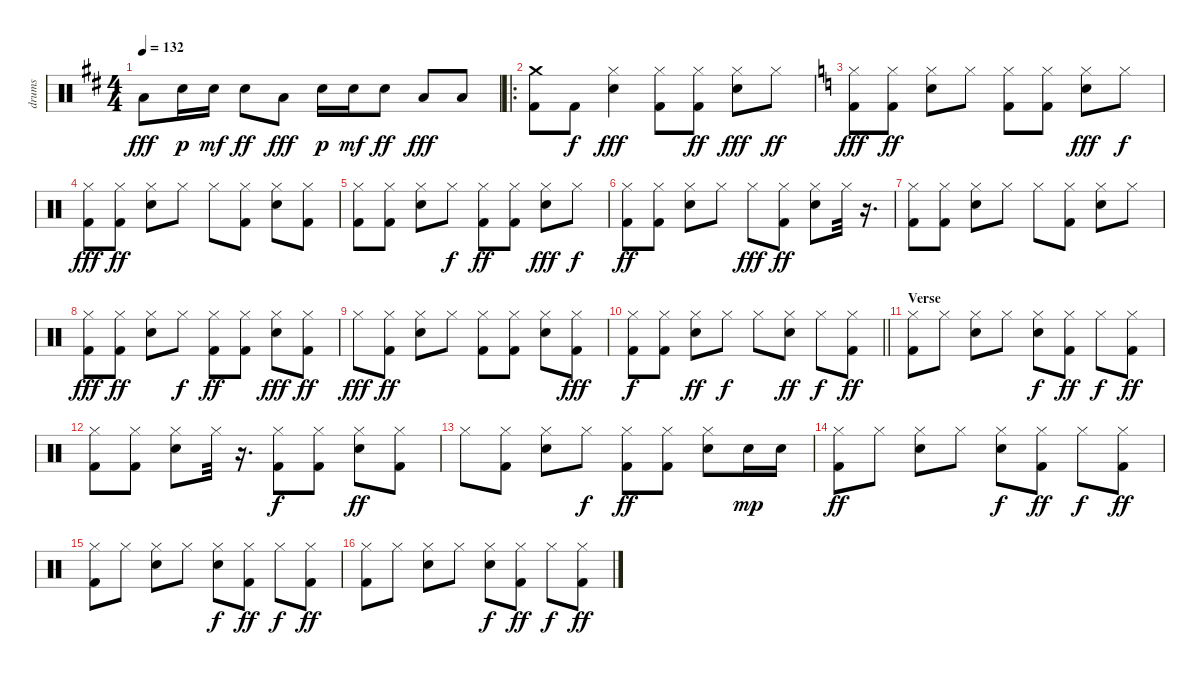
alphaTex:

\track ("drums" "drums") {instrument percussion}
\staff {score}
\articulation defaults
\ts (4 4)
\tempo 132
\clef neutral
\ks d "Low Tom (hit)".8{dy fff} "Electric Snare (hit)".16{dy p} "Electric Snare (hit)".16{dy mf} "Electric Snare (hit)".8{dy ff} "Low Tom (hit)".8{dy fff} "Electric Snare (hit)".16{dy p} "Electric Snare (hit)".16{dy mf} "Electric Snare (hit)".8{dy ff} "Low Tom (hit)".8{dy fff} "Low Tom (hit)".8
|
\ro
("Kick (hit) 2" "Crash medium (hit)").8 "Kick (hit) 2".8{dy f} ("Hi-Hat (closed)" "Electric Snare (hit)").4{dy fff} ("Kick (hit) 2" "Hi-Hat (closed)").8 ("Kick (hit) 2" "Hi-Hat (closed)").8{dy ff} ("Hi-Hat (closed)" "Electric Snare (hit)").8{dy fff} "Hi-Hat (closed)".8{dy ff} |
\ks c
("Kick (hit) 2" "Hi-Hat (closed)").8{dy fff} ("Kick (hit) 2" "Hi-Hat (closed)").8{dy ff} ("Hi-Hat (closed)" "Electric Snare (hit)").8 "Hi-Hat (closed)".8 ("Hi-Hat (closed)" "Kick (hit) 2").8 ("Kick (hit) 2" "Hi-Hat (closed)").8 ("Electric Snare (hit)" "Hi-Hat (closed)").8{dy fff} "Hi-Hat (closed)".8{dy f} |
("Kick (hit) 2" "Hi-Hat (closed)").8{dy fff} ("Kick (hit) 2" "Hi-Hat (closed)").8{dy ff} ("Hi-Hat (closed)" "Electric Snare (hit)").8 "Hi-Hat (closed)".8 "Hi-Hat (closed)".8 ("Kick (hit) 2" "Hi-Hat (closed)").8 ("Electric Snare (hit)" "Hi-Hat (closed)").8 ("Hi-Hat (closed)" "Kick (hit) 2").8 |
("Kick (hit) 2" "Hi-Hat (closed)").8 ("Kick (hit) 2" "Hi-Hat (closed)").8 ("Hi-Hat (closed)" "Electric Snare (hit)").8 "Hi-Hat (closed)".8{dy f} ("Kick (hit) 2" "Hi-Hat (closed)").8{dy ff} ("Hi-Hat (closed)" "Kick (hit) 2").8 ("Electric Snare (hit)" "Hi-Hat (closed)").8{dy fff} "Hi-Hat (closed)".8{dy f} |
("Hi-Hat (closed)" "Kick (hit) 2").8{dy ff} ("Kick (hit) 2" "Hi-Hat (closed)").8 ("Hi-Hat (closed)" "Electric Snare (hit)").8 "Hi-Hat (closed)".8 "Hi-Hat (closed)".8{dy fff} ("Hi-Hat (closed)" "Kick (hit) 2").8{dy ff} ("Electric Snare (hit)" "Hi-Hat (closed)").8 "Hi-Hat (closed)".32 r.16{d} |
("Hi-Hat (closed)" "Kick (hit) 2").8 ("Kick (hit) 2" "Hi-Hat (closed)").8 ("Hi-Hat (closed)" "Electric Snare (hit)").8 "Hi-Hat (closed)".8 "Hi-Hat (closed)".8 ("Hi-Hat (closed)" "Kick (hit) 2").8 ("Electric Snare (hit)" "Hi-Hat (closed)").8 "Hi-Hat (closed)".8 |
("Hi-Hat (closed)" "Kick (hit) 2").8{dy fff} ("Hi-Hat (closed)" "Kick (hit) 2").8{dy ff} ("Hi-Hat (closed)" "Electric Snare (hit)").8 "Hi-Hat (closed)".8{dy f} ("Kick (hit) 2" "Hi-Hat (closed)").8{dy ff} ("Hi-Hat (closed)" "Kick (hit) 2").8 ("Electric Snare (hit)" "Hi-Hat (closed)").8{dy fff} ("Kick (hit) 2" "Hi-Hat (closed)").8{dy ff} |
"Hi-Hat (closed)".8{dy fff} ("Hi-Hat (closed)" "Kick (hit) 2").8{dy ff} ("Hi-Hat (closed)" "Electric Snare (hit)").8 "Hi-Hat (closed)".8 ("Hi-Hat (closed)" "Kick (hit) 2").8 ("Kick (hit) 2" "Hi-Hat (closed)").8 ("Electric Snare (hit)" "Hi-Hat (closed)").8 ("Kick (hit) 2" "Hi-Hat (closed)").8{dy fff} |
\barLineRight lightlight
("Kick (hit) 2" "Hi-Hat (closed)").8{dy f} ("Hi-Hat (closed)" "Kick (hit) 2").8 ("Hi-Hat (closed)" "Electric Snare (hit)").8{dy ff} "Hi-Hat (closed)".8{dy f} "Hi-Hat (closed)".8 ("Hi-Hat (closed)" "Electric Snare (hit)").8{dy ff} "Hi-Hat (closed)".8{dy f} ("Kick (hit) 2" "Hi-Hat (closed)").8{dy ff} |
\section ("" "Verse")
("Hi-Hat (closed)" "Kick (hit) 2").8 "Hi-Hat (closed)".8 ("Hi-Hat (closed)" "Electric Snare (hit)").8 "Hi-Hat (closed)".8 ("Hi-Hat (closed)" "Electric Snare (hit)").8{dy f} ("Kick (hit) 2" "Hi-Hat (closed)").8{dy ff} "Hi-Hat (closed)".8{dy f} ("Kick (hit) 2" "Hi-Hat (closed)").8{dy ff} |
("Kick (hit) 2" "Hi-Hat (closed)").8 ("Hi-Hat (closed)" "Kick (hit) 2").8 ("Electric Snare (hit)" "Hi-Hat (closed)").8 "Hi-Hat (closed)".32 r.16{d} ("Hi-Hat (closed)" "Kick (hit) 2").8{dy f} ("Kick (hit) 2" "Hi-Hat (closed)").8 ("Electric Snare (hit)" "Hi-Hat (closed)").8{dy ff} ("Kick (hit) 2" "Hi-Hat (closed)").8 |
"Hi-Hat (closed)".8 ("Kick (hit) 2" "Hi-Hat (closed)").8 ("Electric Snare (hit)" "Hi-Hat (closed)").8 "Hi-Hat (closed)".8{dy f} ("Kick (hit) 2" "Hi-Hat (closed)").8{dy ff} ("Hi-Hat (closed)" "Kick (hit) 2").8 ("Hi-Hat (closed)" "Electric Snare (hit)").8 "Electric Snare (hit)".16{dy mp} "Electric Snare (hit)".16 |
("Hi-Hat (closed)" "Kick (hit) 2").8{dy ff} "Hi-Hat (closed)".8 ("Hi-Hat (closed)" "Electric Snare (hit)").8 "Hi-Hat (closed)".8 ("Hi-Hat (closed)" "Electric Snare (hit)").8{dy f} ("Kick (hit) 2" "Hi-Hat (closed)").8{dy ff} "Hi-Hat (closed)".8{dy f} ("Kick (hit) 2" "Hi-Hat (closed)").8{dy ff} |
("Hi-Hat (closed)" "Kick (hit) 2").8 "Hi-Hat (closed)".8 ("Hi-Hat (closed)" "Electric Snare (hit)").8 "Hi-Hat (closed)".8 ("Hi-Hat (closed)" "Electric Snare (hit)").8{dy f} ("Kick (hit) 2" "Hi-Hat (closed)").8{dy ff} "Hi-Hat (closed)".8{dy f} ("Kick (hit) 2" "Hi-Hat (closed)").8{dy ff} |
("Hi-Hat (closed)" "Kick (hit) 2").8 "Hi-Hat (closed)".8 ("Hi-Hat (closed)" "Electric Snare (hit)").8 "Hi-Hat (closed)".8 ("Hi-Hat (closed)" "Electric Snare (hit)").8{dy f} ("Kick (hit) 2" "Hi-Hat (closed)").8{dy ff} "Hi-Hat (closed)".8{dy f} ("Kick (hit) 2" "Hi-Hat (closed)").8{dy ff}
